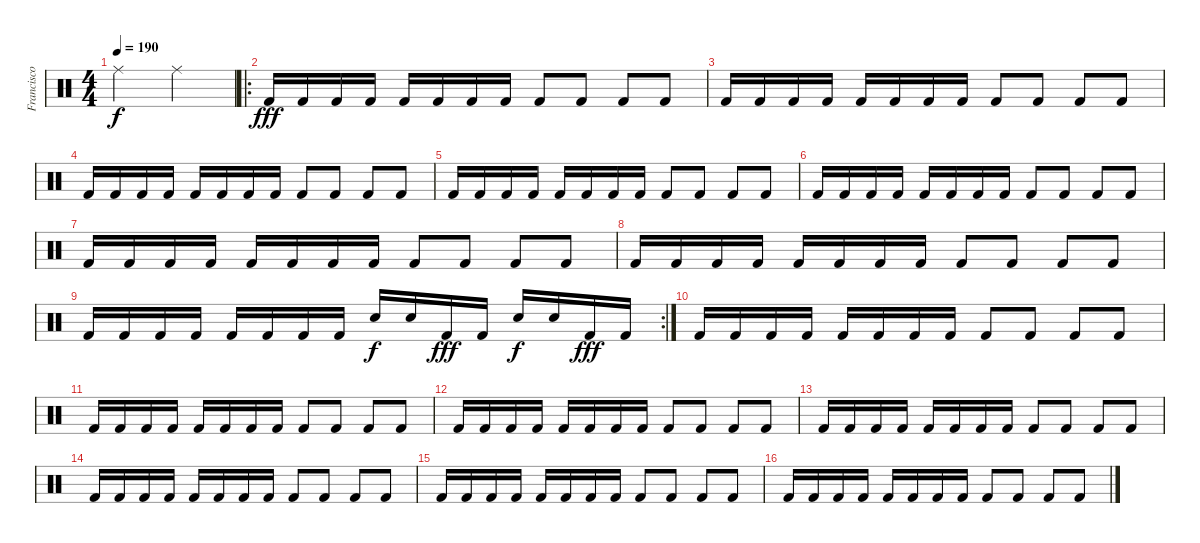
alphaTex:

\track ("Francisco Izquierdo (Percusión)" "Francisco ") {instrument percussion}
\staff {score}
\articulation defaults
\ts (4 4)
\tempo 190
\clef neutral
\ks c "Ride (middle)".2{dy f} "Ride (middle)".2
|
\ro "Kick (hit) 2".16{dy fff} "Kick (hit) 2".16 "Kick (hit) 2".16 "Kick (hit) 2".16 "Kick (hit) 2".16 "Kick (hit) 2".16 "Kick (hit) 2".16 "Kick (hit) 2".16 "Kick (hit) 2".8 "Kick (hit) 2".8 "Kick (hit) 2".8 "Kick (hit) 2".8
|
"Kick (hit) 2".16 "Kick (hit) 2".16 "Kick (hit) 2".16 "Kick (hit) 2".16 "Kick (hit) 2".16 "Kick (hit) 2".16 "Kick (hit) 2".16 "Kick (hit) 2".16 "Kick (hit) 2".8 "Kick (hit) 2".8 "Kick (hit) 2".8 "Kick (hit) 2".8 |
"Kick (hit) 2".16 "Kick (hit) 2".16 "Kick (hit) 2".16 "Kick (hit) 2".16 "Kick (hit) 2".16 "Kick (hit) 2".16 "Kick (hit) 2".16 "Kick (hit) 2".16 "Kick (hit) 2".8 "Kick (hit) 2".8 "Kick (hit) 2".8 "Kick (hit) 2".8 |
"Kick (hit) 2".16 "Kick (hit) 2".16 "Kick (hit) 2".16 "Kick (hit) 2".16 "Kick (hit) 2".16 "Kick (hit) 2".16 "Kick (hit) 2".16 "Kick (hit) 2".16 "Kick (hit) 2".8 "Kick (hit) 2".8 "Kick (hit) 2".8 "Kick (hit) 2".8 |
"Kick (hit) 2".16 "Kick (hit) 2".16 "Kick (hit) 2".16 "Kick (hit) 2".16 "Kick (hit) 2".16 "Kick (hit) 2".16 "Kick (hit) 2".16 "Kick (hit) 2".16 "Kick (hit) 2".8 "Kick (hit) 2".8 "Kick (hit) 2".8 "Kick (hit) 2".8 |
"Kick (hit) 2".16 "Kick (hit) 2".16 "Kick (hit) 2".16 "Kick (hit) 2".16 "Kick (hit) 2".16 "Kick (hit) 2".16 "Kick (hit) 2".16 "Kick (hit) 2".16 "Kick (hit) 2".8 "Kick (hit) 2".8 "Kick (hit) 2".8 "Kick (hit) 2".8 |
"Kick (hit) 2".16 "Kick (hit) 2".16 "Kick (hit) 2".16 "Kick (hit) 2".16 "Kick (hit) 2".16 "Kick (hit) 2".16 "Kick (hit) 2".16 "Kick (hit) 2".16 "Kick (hit) 2".8 "Kick (hit) 2".8 "Kick (hit) 2".8 "Kick (hit) 2".8 |
\rc 2 "Kick (hit) 2".16 "Kick (hit) 2".16 "Kick (hit) 2".16 "Kick (hit) 2".16 "Kick (hit) 2".16 "Kick (hit) 2".16 "Kick (hit) 2".16 "Kick (hit) 2".16 "Electric Snare (hit)".16{dy f} "Electric Snare (hit)".16 "Kick (hit) 2".16{dy fff} "Kick (hit) 2".16 "Electric Snare (hit)".16{dy f} "Electric Snare (hit)".16 "Kick (hit) 2".16{dy fff} "Kick (hit) 2".16
|
"Kick (hit) 2".16 "Kick (hit) 2".16 "Kick (hit) 2".16 "Kick (hit) 2".16 "Kick (hit) 2".16 "Kick (hit) 2".16 "Kick (hit) 2".16 "Kick (hit) 2".16 "Kick (hit) 2".8 "Kick (hit) 2".8 "Kick (hit) 2".8 "Kick (hit) 2".8 |
"Kick (hit) 2".16 "Kick (hit) 2".16 "Kick (hit) 2".16 "Kick (hit) 2".16 "Kick (hit) 2".16 "Kick (hit) 2".16 "Kick (hit) 2".16 "Kick (hit) 2".16 "Kick (hit) 2".8 "Kick (hit) 2".8 "Kick (hit) 2".8 "Kick (hit) 2".8 |
"Kick (hit) 2".16 "Kick (hit) 2".16 "Kick (hit) 2".16 "Kick (hit) 2".16 "Kick (hit) 2".16 "Kick (hit) 2".16 "Kick (hit) 2".16 "Kick (hit) 2".16 "Kick (hit) 2".8 "Kick (hit) 2".8 "Kick (hit) 2".8 "Kick (hit) 2".8 |
"Kick (hit) 2".16{volume 0} "Kick (hit) 2".16 "Kick (hit) 2".16 "Kick (hit) 2".16 "Kick (hit) 2".16 "Kick (hit) 2".16 "Kick (hit) 2".16 "Kick (hit) 2".16 "Kick (hit) 2".8 "Kick (hit) 2".8 "Kick (hit) 2".8 "Kick (hit) 2".8 |
"Kick (hit) 2".16 "Kick (hit) 2".16 "Kick (hit) 2".16 "Kick (hit) 2".16 "Kick (hit) 2".16 "Kick (hit) 2".16 "Kick (hit) 2".16 "Kick (hit) 2".16 "Kick (hit) 2".8 "Kick (hit) 2".8 "Kick (hit) 2".8 "Kick (hit) 2".8 |
"Kick (hit) 2".16 "Kick (hit) 2".16 "Kick (hit) 2".16 "Kick (hit) 2".16 "Kick (hit) 2".16 "Kick (hit) 2".16 "Kick (hit) 2".16 "Kick (hit) 2".16 "Kick (hit) 2".8 "Kick (hit) 2".8 "Kick (hit) 2".8 "Kick (hit) 2".8 |
"Kick (hit) 2".16 "Kick (hit) 2".16 "Kick (hit) 2".16 "Kick (hit) 2".16 "Kick (hit) 2".16 "Kick (hit) 2".16 "Kick (hit) 2".16 "Kick (hit) 2".16 "Kick (hit) 2".8 "Kick (hit) 2".8 "Kick (hit) 2".8 "Kick (hit) 2".8
